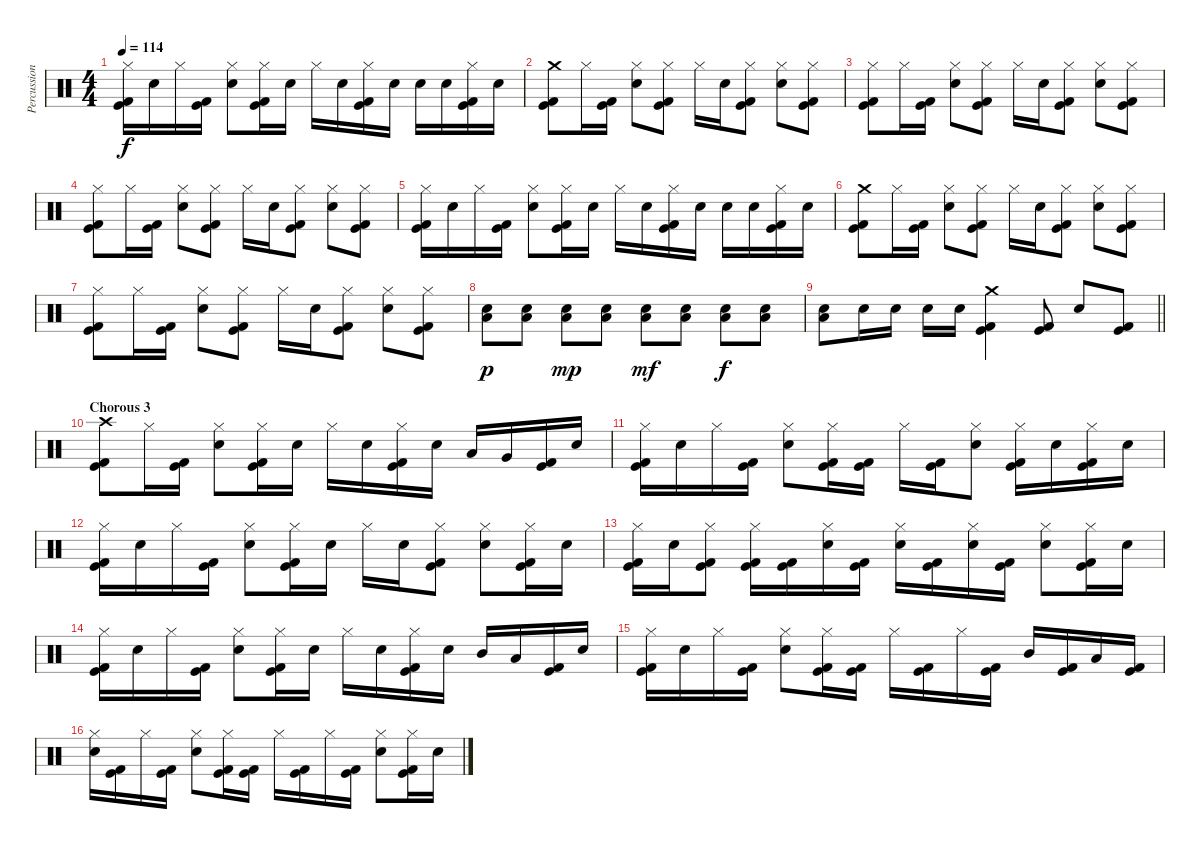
\track ("Percussion" "Percussion") {instrument percussion}
\staff {score}
\articulation defaults
\ts (4 4)
\tempo 114
\clef neutral
\ks c
("Hi-Hat (closed)" "Kick (hit)" "Kick (hit) 2").16{dy f} "Electric Snare (hit)".16 "Hi-Hat (closed)".16 ("Kick (hit)" "Kick (hit) 2").16 ("Hi-Hat (closed)" "Electric Snare (hit)").8 ("Hi-Hat (closed)" "Kick (hit)" "Kick (hit) 2").16 "Electric Snare (hit)".16 "Hi-Hat (closed)".16 "Electric Snare (hit)".16 ("Hi-Hat (closed)" "Kick (hit)" "Kick (hit) 2").16 "Electric Snare (hit)".16 "Electric Snare (hit)".16 "Electric Snare (hit)".16 ("Hi-Hat (closed)" "Kick (hit)" "Kick (hit) 2").16 "Electric Snare (hit)".16 |
("Crash medium (hit)" "Kick (hit)" "Kick (hit) 2").8 "Hi-Hat (closed)".16 ("Kick (hit)" "Kick (hit) 2").16 ("Hi-Hat (closed)" "Electric Snare (hit)").8 ("Hi-Hat (closed)" "Kick (hit)" "Kick (hit) 2").8 "Hi-Hat (closed)".16 "Electric Snare (hit)".16 ("Hi-Hat (closed)" "Kick (hit)" "Kick (hit) 2").8 ("Hi-Hat (closed)" "Electric Snare (hit)").8 ("Hi-Hat (closed)" "Kick (hit)" "Kick (hit) 2").8 |
("Hi-Hat (closed)" "Kick (hit)" "Kick (hit) 2").8 "Hi-Hat (closed)".16 ("Kick (hit)" "Kick (hit) 2").16 ("Hi-Hat (closed)" "Electric Snare (hit)").8 ("Hi-Hat (closed)" "Kick (hit)" "Kick (hit) 2").8 "Hi-Hat (closed)".16 "Electric Snare (hit)".16 ("Hi-Hat (closed)" "Kick (hit)" "Kick (hit) 2").8 ("Hi-Hat (closed)" "Electric Snare (hit)").8 ("Hi-Hat (closed)" "Kick (hit)" "Kick (hit) 2").8 |
("Hi-Hat (closed)" "Kick (hit)" "Kick (hit) 2").8 "Hi-Hat (closed)".16 ("Kick (hit)" "Kick (hit) 2").16 ("Hi-Hat (closed)" "Electric Snare (hit)").8 ("Hi-Hat (closed)" "Kick (hit)" "Kick (hit) 2").8 "Hi-Hat (closed)".16 "Electric Snare (hit)".16 ("Hi-Hat (closed)" "Kick (hit)" "Kick (hit) 2").8 ("Hi-Hat (closed)" "Electric Snare (hit)").8 ("Hi-Hat (closed)" "Kick (hit)" "Kick (hit) 2").8 |
("Hi-Hat (closed)" "Kick (hit)" "Kick (hit) 2").16 "Electric Snare (hit)".16 "Hi-Hat (closed)".16 ("Kick (hit)" "Kick (hit) 2").16 ("Hi-Hat (closed)" "Electric Snare (hit)").8 ("Hi-Hat (closed)" "Kick (hit)" "Kick (hit) 2").16 "Electric Snare (hit)".16 "Hi-Hat (closed)".16 "Electric Snare (hit)".16 ("Hi-Hat (closed)" "Kick (hit)" "Kick (hit) 2").16 "Electric Snare (hit)".16 "Electric Snare (hit)".16 "Electric Snare (hit)".16 ("Hi-Hat (closed)" "Kick (hit)" "Kick (hit) 2").16 "Electric Snare (hit)".16 |
("Crash medium (hit)" "Kick (hit)" "Kick (hit) 2").8 "Hi-Hat (closed)".16 ("Kick (hit)" "Kick (hit) 2").16 ("Hi-Hat (closed)" "Electric Snare (hit)").8 ("Hi-Hat (closed)" "Kick (hit)" "Kick (hit) 2").8 "Hi-Hat (closed)".16 "Electric Snare (hit)".16 ("Hi-Hat (closed)" "Kick (hit)" "Kick (hit) 2").8 ("Hi-Hat (closed)" "Electric Snare (hit)").8 ("Hi-Hat (closed)" "Kick (hit)" "Kick (hit) 2").8 |
("Hi-Hat (closed)" "Kick (hit)" "Kick (hit) 2").8 "Hi-Hat (closed)".16 ("Kick (hit)" "Kick (hit) 2").16 ("Hi-Hat (closed)" "Electric Snare (hit)").8 ("Hi-Hat (closed)" "Kick (hit)" "Kick (hit) 2").8 "Hi-Hat (closed)".16 "Electric Snare (hit)".16 ("Hi-Hat (closed)" "Kick (hit)" "Kick (hit) 2").8 ("Hi-Hat (closed)" "Electric Snare (hit)").8 ("Hi-Hat (closed)" "Kick (hit)" "Kick (hit) 2").8 |
("Electric Snare (hit)" "Low Floor Tom (hit)").8{dy p} ("Electric Snare (hit)" "Low Floor Tom (hit)").8 ("Electric Snare (hit)" "Low Floor Tom (hit)").8{dy mp} ("Electric Snare (hit)" "Low Floor Tom (hit)").8 ("Electric Snare (hit)" "Low Floor Tom (hit)").8{dy mf} ("Electric Snare (hit)" "Low Floor Tom (hit)").8 ("Electric Snare (hit)" "Low Floor Tom (hit)").8{dy f} ("Electric Snare (hit)" "Low Floor Tom (hit)").8 |
\barLineRight lightlight
("Electric Snare (hit)" "Low Floor Tom (hit)").8 "Electric Snare (hit)".16 "Electric Snare (hit)".16 "Electric Snare (hit)".16 "Electric Snare (hit)".16 ("Crash medium (hit)" "Kick (hit)" "Kick (hit) 2").4 ("Kick (hit)" "Kick (hit) 2").8 "Electric Snare (hit)".8 ("Kick (hit)" "Kick (hit) 2").8 |
\section ("" "Chorous 3")
("Crash high (hit)" "Kick (hit)" "Kick (hit) 2").8 "Hi-Hat (closed)".16 ("Kick (hit)" "Kick (hit) 2").16 ("Hi-Hat (closed)" "Electric Snare (hit)").8 ("Hi-Hat (closed)" "Kick (hit)" "Kick (hit) 2").16 "Electric Snare (hit)".16 "Hi-Hat (closed)".16 "Electric Snare (hit)".16 ("Hi-Hat (closed)" "Kick (hit)" "Kick (hit) 2").16 "Electric Snare (hit)".16 "Low Tom (hit)".16 "Very Low Tom (hit)".16 ("Kick (hit)" "Kick (hit) 2").16 "Electric Snare (hit)".16 |
("Hi-Hat (closed)" "Kick (hit)" "Kick (hit) 2").16 "Electric Snare (hit)".16 "Hi-Hat (closed)".16 ("Kick (hit)" "Kick (hit) 2").16 ("Hi-Hat (closed)" "Electric Snare (hit)").8 ("Hi-Hat (closed)" "Kick (hit)" "Kick (hit) 2").16 ("Kick (hit)" "Kick (hit) 2").16 "Hi-Hat (closed)".16 ("Kick (hit)" "Kick (hit) 2").16 ("Hi-Hat (closed)" "Electric Snare (hit)").8 ("Hi-Hat (closed)" "Kick (hit)" "Kick (hit) 2").16 "Electric Snare (hit)".16 ("Hi-Hat (closed)" "Kick (hit)" "Kick (hit) 2").16 "Electric Snare (hit)".16 |
("Hi-Hat (closed)" "Kick (hit)" "Kick (hit) 2").16 "Electric Snare (hit)".16 "Hi-Hat (closed)".16 ("Kick (hit)" "Kick (hit) 2").16 ("Hi-Hat (closed)" "Electric Snare (hit)").8 ("Hi-Hat (closed)" "Kick (hit)" "Kick (hit) 2").16 "Electric Snare (hit)".16 "Hi-Hat (closed)".16 "Electric Snare (hit)".16 ("Hi-Hat (closed)" "Kick (hit)" "Kick (hit) 2").8 ("Hi-Hat (closed)" "Electric Snare (hit)").8 ("Hi-Hat (closed)" "Kick (hit)" "Kick (hit) 2").16 "Electric Snare (hit)".16 |
("Hi-Hat (closed)" "Kick (hit)" "Kick (hit) 2").16 "Electric Snare (hit)".16 ("Hi-Hat (closed)" "Kick (hit)" "Kick (hit) 2").8 ("Hi-Hat (closed)" "Kick (hit)" "Kick (hit) 2").16 ("Kick (hit)" "Kick (hit) 2").16 ("Hi-Hat (closed)" "Electric Snare (hit)").16 ("Kick (hit)" "Kick (hit) 2").16 ("Hi-Hat (closed)" "Electric Snare (hit)").16 ("Kick (hit)" "Kick (hit) 2").16 ("Hi-Hat (closed)" "Electric Snare (hit)").16 ("Kick (hit)" "Kick (hit) 2").16 ("Hi-Hat (closed)" "Electric Snare (hit)").8 ("Hi-Hat (closed)" "Kick (hit)" "Kick (hit) 2").16 "Electric Snare (hit)".16 |
("Hi-Hat (closed)" "Kick (hit)" "Kick (hit) 2").16 "Electric Snare (hit)".16 "Hi-Hat (closed)".16 ("Kick (hit)" "Kick (hit) 2").16 ("Hi-Hat (closed)" "Electric Snare (hit)").8 ("Hi-Hat (closed)" "Kick (hit)" "Kick (hit) 2").16 "Electric Snare (hit)".16 "Hi-Hat (closed)".16 "Electric Snare (hit)".16 ("Hi-Hat (closed)" "Kick (hit)" "Kick (hit) 2").16 "Electric Snare (hit)".16 "Mid Tom (hit)".16 "Low Tom (hit)".16 ("Kick (hit)" "Kick (hit) 2").16 "Electric Snare (hit)".16 |
("Hi-Hat (closed)" "Kick (hit)" "Kick (hit) 2").16 "Electric Snare (hit)".16 "Hi-Hat (closed)".16 ("Kick (hit)" "Kick (hit) 2").16 ("Hi-Hat (closed)" "Electric Snare (hit)").8 ("Hi-Hat (closed)" "Kick (hit)" "Kick (hit) 2").16 ("Kick (hit)" "Kick (hit) 2").16 "Hi-Hat (closed)".16 ("Kick (hit)" "Kick (hit) 2").16 "Hi-Hat (closed)".16 ("Kick (hit)" "Kick (hit) 2").16 "Mid Tom (hit)".16 ("Kick (hit)" "Kick (hit) 2").16 "Low Tom (hit)".16 ("Kick (hit)" "Kick (hit) 2").16 |
("Hi-Hat (closed)" "Electric Snare (hit)").16 ("Kick (hit)" "Kick (hit) 2").16 "Hi-Hat (closed)".16 ("Kick (hit)" "Kick (hit) 2").16 ("Hi-Hat (closed)" "Electric Snare (hit)").8 ("Hi-Hat (closed)" "Kick (hit)" "Kick (hit) 2").16 ("Kick (hit)" "Kick (hit) 2").16 "Hi-Hat (closed)".16 ("Kick (hit)" "Kick (hit) 2").16 "Hi-Hat (closed)".16 ("Kick (hit)" "Kick (hit) 2").16 ("Hi-Hat (closed)" "Electric Snare (hit)").8 ("Hi-Hat (closed)" "Kick (hit)" "Kick (hit) 2").16 "Electric Snare (hit)".16
